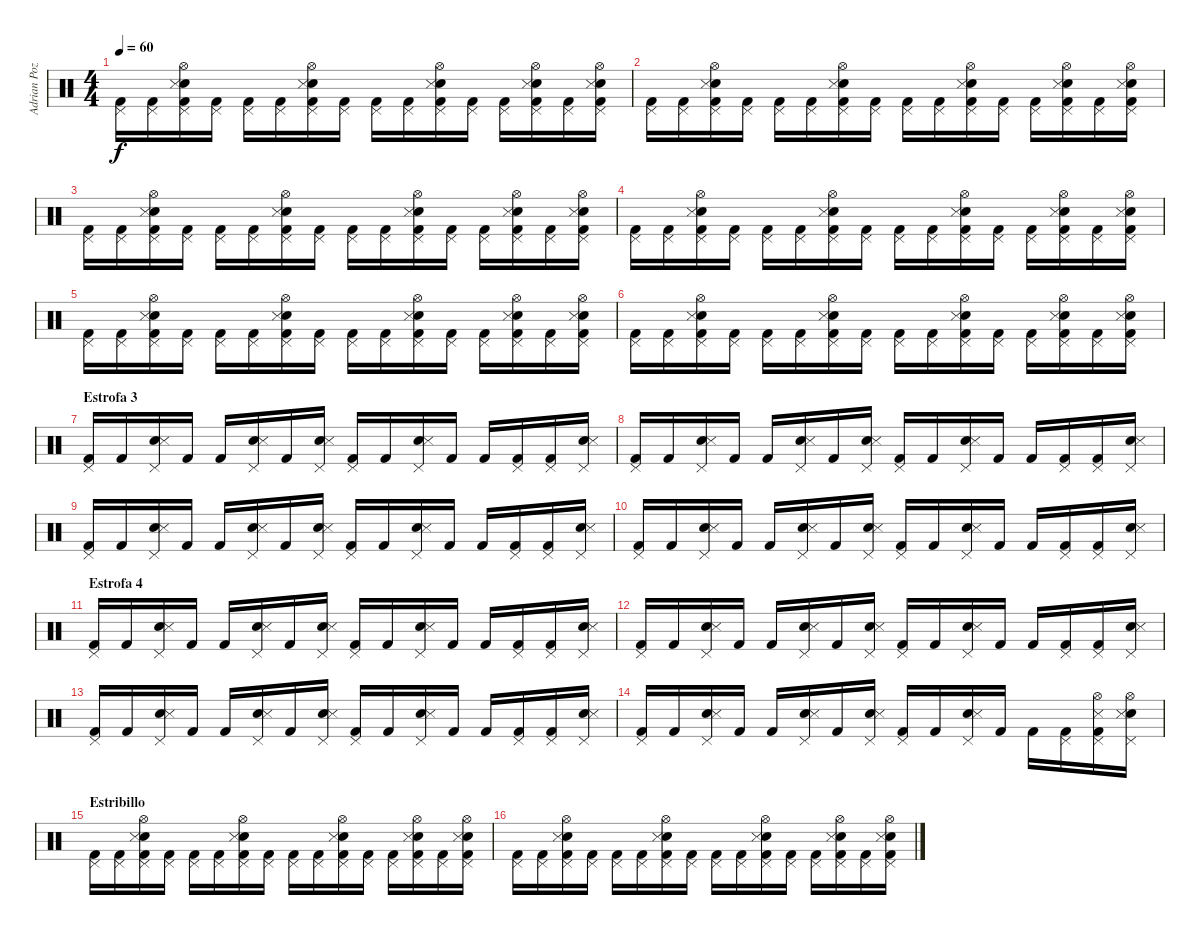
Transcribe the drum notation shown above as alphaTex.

\track ("Adrian Pozo" "Adrian Poz") {instrument percussion}
\staff {score}
\articulation defaults
\ts (4 4)
\tempo 60
\clef neutral
\ks c
("Kick (hit) 2" "Pedal Hi-Hat (hit)").16{dy f} ("Kick (hit) 2" "Pedal Hi-Hat (hit)").16 ("Snare (hit) 2" "Kick (hit) 2" "Snare (side stick) 3" "Hi-Hat (open)" "Pedal Hi-Hat (hit)").16 ("Kick (hit) 2" "Pedal Hi-Hat (hit)").16 ("Kick (hit) 2" "Pedal Hi-Hat (hit)").16 ("Kick (hit) 2" "Pedal Hi-Hat (hit)").16 ("Snare (hit) 2" "Kick (hit) 2" "Snare (side stick) 3" "Hi-Hat (open)" "Pedal Hi-Hat (hit)").16 ("Kick (hit) 2" "Pedal Hi-Hat (hit)").16 ("Kick (hit) 2" "Pedal Hi-Hat (hit)").16 ("Kick (hit) 2" "Pedal Hi-Hat (hit)").16 ("Snare (hit) 2" "Kick (hit) 2" "Snare (side stick) 3" "Hi-Hat (open)" "Pedal Hi-Hat (hit)").16 ("Kick (hit) 2" "Pedal Hi-Hat (hit)").16 ("Kick (hit) 2" "Pedal Hi-Hat (hit)").16 ("Snare (hit) 2" "Kick (hit) 2" "Snare (side stick) 3" "Hi-Hat (open)" "Pedal Hi-Hat (hit)").16 ("Kick (hit) 2" "Pedal Hi-Hat (hit)").16 ("Snare (hit) 2" "Kick (hit) 2" "Snare (side stick) 3" "Hi-Hat (open)" "Pedal Hi-Hat (hit)").16 |
("Kick (hit) 2" "Pedal Hi-Hat (hit)").16 ("Kick (hit) 2" "Pedal Hi-Hat (hit)").16 ("Snare (hit) 2" "Kick (hit) 2" "Snare (side stick) 3" "Hi-Hat (open)" "Pedal Hi-Hat (hit)").16 ("Kick (hit) 2" "Pedal Hi-Hat (hit)").16 ("Kick (hit) 2" "Pedal Hi-Hat (hit)").16 ("Kick (hit) 2" "Pedal Hi-Hat (hit)").16 ("Snare (hit) 2" "Kick (hit) 2" "Snare (side stick) 3" "Hi-Hat (open)" "Pedal Hi-Hat (hit)").16 ("Kick (hit) 2" "Pedal Hi-Hat (hit)").16 ("Kick (hit) 2" "Pedal Hi-Hat (hit)").16 ("Kick (hit) 2" "Pedal Hi-Hat (hit)").16 ("Snare (hit) 2" "Kick (hit) 2" "Snare (side stick) 3" "Hi-Hat (open)" "Pedal Hi-Hat (hit)").16 ("Kick (hit) 2" "Pedal Hi-Hat (hit)").16 ("Kick (hit) 2" "Pedal Hi-Hat (hit)").16 ("Snare (hit) 2" "Kick (hit) 2" "Snare (side stick) 3" "Hi-Hat (open)" "Pedal Hi-Hat (hit)").16 ("Kick (hit) 2" "Pedal Hi-Hat (hit)").16 ("Snare (hit) 2" "Kick (hit) 2" "Snare (side stick) 3" "Hi-Hat (open)" "Pedal Hi-Hat (hit)").16 |
("Kick (hit) 2" "Pedal Hi-Hat (hit)").16 ("Kick (hit) 2" "Pedal Hi-Hat (hit)").16 ("Snare (hit) 2" "Kick (hit) 2" "Snare (side stick) 3" "Hi-Hat (open)" "Pedal Hi-Hat (hit)").16 ("Kick (hit) 2" "Pedal Hi-Hat (hit)").16 ("Kick (hit) 2" "Pedal Hi-Hat (hit)").16 ("Kick (hit) 2" "Pedal Hi-Hat (hit)").16 ("Snare (hit) 2" "Kick (hit) 2" "Snare (side stick) 3" "Hi-Hat (open)" "Pedal Hi-Hat (hit)").16 ("Kick (hit) 2" "Pedal Hi-Hat (hit)").16 ("Kick (hit) 2" "Pedal Hi-Hat (hit)").16 ("Kick (hit) 2" "Pedal Hi-Hat (hit)").16 ("Snare (hit) 2" "Kick (hit) 2" "Snare (side stick) 3" "Hi-Hat (open)" "Pedal Hi-Hat (hit)").16 ("Kick (hit) 2" "Pedal Hi-Hat (hit)").16 ("Kick (hit) 2" "Pedal Hi-Hat (hit)").16 ("Snare (hit) 2" "Kick (hit) 2" "Snare (side stick) 3" "Hi-Hat (open)" "Pedal Hi-Hat (hit)").16 ("Kick (hit) 2" "Pedal Hi-Hat (hit)").16 ("Snare (hit) 2" "Kick (hit) 2" "Snare (side stick) 3" "Hi-Hat (open)" "Pedal Hi-Hat (hit)").16 |
("Kick (hit) 2" "Pedal Hi-Hat (hit)").16 ("Kick (hit) 2" "Pedal Hi-Hat (hit)").16 ("Snare (hit) 2" "Kick (hit) 2" "Snare (side stick) 3" "Hi-Hat (open)" "Pedal Hi-Hat (hit)").16 ("Kick (hit) 2" "Pedal Hi-Hat (hit)").16 ("Kick (hit) 2" "Pedal Hi-Hat (hit)").16 ("Kick (hit) 2" "Pedal Hi-Hat (hit)").16 ("Snare (hit) 2" "Kick (hit) 2" "Snare (side stick) 3" "Hi-Hat (open)" "Pedal Hi-Hat (hit)").16 ("Kick (hit) 2" "Pedal Hi-Hat (hit)").16 ("Kick (hit) 2" "Pedal Hi-Hat (hit)").16 ("Kick (hit) 2" "Pedal Hi-Hat (hit)").16 ("Snare (hit) 2" "Kick (hit) 2" "Snare (side stick) 3" "Hi-Hat (open)" "Pedal Hi-Hat (hit)").16 ("Kick (hit) 2" "Pedal Hi-Hat (hit)").16 ("Kick (hit) 2" "Pedal Hi-Hat (hit)").16 ("Snare (hit) 2" "Kick (hit) 2" "Snare (side stick) 3" "Hi-Hat (open)" "Pedal Hi-Hat (hit)").16 ("Kick (hit) 2" "Pedal Hi-Hat (hit)").16 ("Snare (hit) 2" "Kick (hit) 2" "Snare (side stick) 3" "Hi-Hat (open)" "Pedal Hi-Hat (hit)").16 |
("Kick (hit) 2" "Pedal Hi-Hat (hit)").16 ("Kick (hit) 2" "Pedal Hi-Hat (hit)").16 ("Snare (hit) 2" "Kick (hit) 2" "Snare (side stick) 3" "Hi-Hat (open)" "Pedal Hi-Hat (hit)").16 ("Kick (hit) 2" "Pedal Hi-Hat (hit)").16 ("Kick (hit) 2" "Pedal Hi-Hat (hit)").16 ("Kick (hit) 2" "Pedal Hi-Hat (hit)").16 ("Snare (hit) 2" "Kick (hit) 2" "Snare (side stick) 3" "Hi-Hat (open)" "Pedal Hi-Hat (hit)").16 ("Kick (hit) 2" "Pedal Hi-Hat (hit)").16 ("Kick (hit) 2" "Pedal Hi-Hat (hit)").16 ("Kick (hit) 2" "Pedal Hi-Hat (hit)").16 ("Snare (hit) 2" "Kick (hit) 2" "Snare (side stick) 3" "Hi-Hat (open)" "Pedal Hi-Hat (hit)").16 ("Kick (hit) 2" "Pedal Hi-Hat (hit)").16 ("Kick (hit) 2" "Pedal Hi-Hat (hit)").16 ("Snare (hit) 2" "Kick (hit) 2" "Snare (side stick) 3" "Hi-Hat (open)" "Pedal Hi-Hat (hit)").16 ("Kick (hit) 2" "Pedal Hi-Hat (hit)").16 ("Snare (hit) 2" "Kick (hit) 2" "Snare (side stick) 3" "Hi-Hat (open)" "Pedal Hi-Hat (hit)").16 |
("Kick (hit) 2" "Pedal Hi-Hat (hit)").16 ("Kick (hit) 2" "Pedal Hi-Hat (hit)").16 ("Snare (hit) 2" "Kick (hit) 2" "Snare (side stick) 3" "Hi-Hat (open)" "Pedal Hi-Hat (hit)").16 ("Kick (hit) 2" "Pedal Hi-Hat (hit)").16 ("Kick (hit) 2" "Pedal Hi-Hat (hit)").16 ("Kick (hit) 2" "Pedal Hi-Hat (hit)").16 ("Snare (hit) 2" "Kick (hit) 2" "Snare (side stick) 3" "Hi-Hat (open)" "Pedal Hi-Hat (hit)").16 ("Kick (hit) 2" "Pedal Hi-Hat (hit)").16 ("Kick (hit) 2" "Pedal Hi-Hat (hit)").16 ("Kick (hit) 2" "Pedal Hi-Hat (hit)").16 ("Snare (hit) 2" "Kick (hit) 2" "Snare (side stick) 3" "Hi-Hat (open)" "Pedal Hi-Hat (hit)").16 ("Kick (hit) 2" "Pedal Hi-Hat (hit)").16 ("Kick (hit) 2" "Pedal Hi-Hat (hit)").16 ("Snare (hit) 2" "Kick (hit) 2" "Snare (side stick) 3" "Hi-Hat (open)" "Pedal Hi-Hat (hit)").16 ("Kick (hit) 2" "Pedal Hi-Hat (hit)").16 ("Snare (hit) 2" "Kick (hit) 2" "Snare (side stick) 3" "Hi-Hat (open)" "Pedal Hi-Hat (hit)").16 |
\section ("" "Estrofa 3")
("Kick (hit) 2" "Pedal Hi-Hat (hit)").16 "Kick (hit) 2".16 ("Snare (hit) 2" "Snare (side stick) 3" "Pedal Hi-Hat (hit)").16 "Kick (hit) 2".16 "Kick (hit) 2".16 ("Snare (hit) 2" "Snare (side stick) 3" "Pedal Hi-Hat (hit)").16 "Kick (hit) 2".16 ("Snare (hit) 2" "Snare (side stick) 3" "Pedal Hi-Hat (hit)").16 ("Kick (hit) 2" "Pedal Hi-Hat (hit)").16 "Kick (hit) 2".16 ("Snare (hit) 2" "Snare (side stick) 3" "Pedal Hi-Hat (hit)").16 "Kick (hit) 2".16 "Kick (hit) 2".16 ("Kick (hit) 2" "Pedal Hi-Hat (hit)").16 ("Kick (hit) 2" "Pedal Hi-Hat (hit)").16 ("Snare (hit) 2" "Snare (side stick) 3" "Pedal Hi-Hat (hit)").16 |
("Kick (hit) 2" "Pedal Hi-Hat (hit)").16 "Kick (hit) 2".16 ("Snare (hit) 2" "Snare (side stick) 3" "Pedal Hi-Hat (hit)").16 "Kick (hit) 2".16 "Kick (hit) 2".16 ("Snare (hit) 2" "Snare (side stick) 3" "Pedal Hi-Hat (hit)").16 "Kick (hit) 2".16 ("Snare (hit) 2" "Snare (side stick) 3" "Pedal Hi-Hat (hit)").16 ("Kick (hit) 2" "Pedal Hi-Hat (hit)").16 "Kick (hit) 2".16 ("Snare (hit) 2" "Snare (side stick) 3" "Pedal Hi-Hat (hit)").16 "Kick (hit) 2".16 "Kick (hit) 2".16 ("Kick (hit) 2" "Pedal Hi-Hat (hit)").16 ("Kick (hit) 2" "Pedal Hi-Hat (hit)").16 ("Snare (hit) 2" "Snare (side stick) 3" "Pedal Hi-Hat (hit)").16 |
("Kick (hit) 2" "Pedal Hi-Hat (hit)").16 "Kick (hit) 2".16 ("Snare (hit) 2" "Snare (side stick) 3" "Pedal Hi-Hat (hit)").16 "Kick (hit) 2".16 "Kick (hit) 2".16 ("Snare (hit) 2" "Snare (side stick) 3" "Pedal Hi-Hat (hit)").16 "Kick (hit) 2".16 ("Snare (hit) 2" "Snare (side stick) 3" "Pedal Hi-Hat (hit)").16 ("Kick (hit) 2" "Pedal Hi-Hat (hit)").16 "Kick (hit) 2".16 ("Snare (hit) 2" "Snare (side stick) 3" "Pedal Hi-Hat (hit)").16 "Kick (hit) 2".16 "Kick (hit) 2".16 ("Kick (hit) 2" "Pedal Hi-Hat (hit)").16 ("Kick (hit) 2" "Pedal Hi-Hat (hit)").16 ("Snare (hit) 2" "Snare (side stick) 3" "Pedal Hi-Hat (hit)").16 |
("Kick (hit) 2" "Pedal Hi-Hat (hit)").16 "Kick (hit) 2".16 ("Snare (hit) 2" "Snare (side stick) 3" "Pedal Hi-Hat (hit)").16 "Kick (hit) 2".16 "Kick (hit) 2".16 ("Snare (hit) 2" "Snare (side stick) 3" "Pedal Hi-Hat (hit)").16 "Kick (hit) 2".16 ("Snare (hit) 2" "Snare (side stick) 3" "Pedal Hi-Hat (hit)").16 ("Kick (hit) 2" "Pedal Hi-Hat (hit)").16 "Kick (hit) 2".16 ("Snare (hit) 2" "Snare (side stick) 3" "Pedal Hi-Hat (hit)").16 "Kick (hit) 2".16 "Kick (hit) 2".16 ("Kick (hit) 2" "Pedal Hi-Hat (hit)").16 ("Kick (hit) 2" "Pedal Hi-Hat (hit)").16 ("Snare (hit) 2" "Snare (side stick) 3" "Pedal Hi-Hat (hit)").16 |
\section ("" "Estrofa 4")
("Kick (hit) 2" "Pedal Hi-Hat (hit)").16 "Kick (hit) 2".16 ("Snare (hit) 2" "Snare (side stick) 3" "Pedal Hi-Hat (hit)").16 "Kick (hit) 2".16 "Kick (hit) 2".16 ("Snare (hit) 2" "Snare (side stick) 3" "Pedal Hi-Hat (hit)").16 "Kick (hit) 2".16 ("Snare (hit) 2" "Snare (side stick) 3" "Pedal Hi-Hat (hit)").16 ("Kick (hit) 2" "Pedal Hi-Hat (hit)").16 "Kick (hit) 2".16 ("Snare (hit) 2" "Snare (side stick) 3" "Pedal Hi-Hat (hit)").16 "Kick (hit) 2".16 "Kick (hit) 2".16 ("Kick (hit) 2" "Pedal Hi-Hat (hit)").16 ("Kick (hit) 2" "Pedal Hi-Hat (hit)").16 ("Snare (hit) 2" "Snare (side stick) 3" "Pedal Hi-Hat (hit)").16 |
("Kick (hit) 2" "Pedal Hi-Hat (hit)").16 "Kick (hit) 2".16 ("Snare (hit) 2" "Snare (side stick) 3" "Pedal Hi-Hat (hit)").16 "Kick (hit) 2".16 "Kick (hit) 2".16 ("Snare (hit) 2" "Snare (side stick) 3" "Pedal Hi-Hat (hit)").16 "Kick (hit) 2".16 ("Snare (hit) 2" "Snare (side stick) 3" "Pedal Hi-Hat (hit)").16 ("Kick (hit) 2" "Pedal Hi-Hat (hit)").16 "Kick (hit) 2".16 ("Snare (hit) 2" "Snare (side stick) 3" "Pedal Hi-Hat (hit)").16 "Kick (hit) 2".16 "Kick (hit) 2".16 ("Kick (hit) 2" "Pedal Hi-Hat (hit)").16 ("Kick (hit) 2" "Pedal Hi-Hat (hit)").16 ("Snare (hit) 2" "Snare (side stick) 3" "Pedal Hi-Hat (hit)").16 |
("Kick (hit) 2" "Pedal Hi-Hat (hit)").16 "Kick (hit) 2".16 ("Snare (hit) 2" "Snare (side stick) 3" "Pedal Hi-Hat (hit)").16 "Kick (hit) 2".16 "Kick (hit) 2".16 ("Snare (hit) 2" "Snare (side stick) 3" "Pedal Hi-Hat (hit)").16 "Kick (hit) 2".16 ("Snare (hit) 2" "Snare (side stick) 3" "Pedal Hi-Hat (hit)").16 ("Kick (hit) 2" "Pedal Hi-Hat (hit)").16 "Kick (hit) 2".16 ("Snare (hit) 2" "Snare (side stick) 3" "Pedal Hi-Hat (hit)").16 "Kick (hit) 2".16 "Kick (hit) 2".16 ("Kick (hit) 2" "Pedal Hi-Hat (hit)").16 ("Kick (hit) 2" "Pedal Hi-Hat (hit)").16 ("Snare (hit) 2" "Snare (side stick) 3" "Pedal Hi-Hat (hit)").16 |
("Kick (hit) 2" "Pedal Hi-Hat (hit)").16 "Kick (hit) 2".16 ("Snare (hit) 2" "Snare (side stick) 3" "Pedal Hi-Hat (hit)").16 "Kick (hit) 2".16 "Kick (hit) 2".16 ("Snare (hit) 2" "Snare (side stick) 3" "Pedal Hi-Hat (hit)").16 "Kick (hit) 2".16 ("Snare (hit) 2" "Snare (side stick) 3" "Pedal Hi-Hat (hit)").16 ("Kick (hit) 2" "Pedal Hi-Hat (hit)").16 "Kick (hit) 2".16 ("Snare (hit) 2" "Snare (side stick) 3" "Pedal Hi-Hat (hit)").16 "Kick (hit) 2".16 "Kick (hit) 2".16 ("Kick (hit) 2" "Pedal Hi-Hat (hit)").16 ("Kick (hit) 2" "Snare (side stick) 3" "Hi-Hat (open)" "Pedal Hi-Hat (hit)").16 ("Snare (hit) 2" "Snare (side stick) 3" "Hi-Hat (open)" "Pedal Hi-Hat (hit)").16 |
\section ("" "Estribillo")
("Kick (hit) 2" "Pedal Hi-Hat (hit)").16 ("Kick (hit) 2" "Pedal Hi-Hat (hit)").16 ("Snare (hit) 2" "Kick (hit) 2" "Snare (side stick) 3" "Hi-Hat (open)" "Pedal Hi-Hat (hit)").16 ("Kick (hit) 2" "Pedal Hi-Hat (hit)").16 ("Kick (hit) 2" "Pedal Hi-Hat (hit)").16 ("Kick (hit) 2" "Pedal Hi-Hat (hit)").16 ("Snare (hit) 2" "Kick (hit) 2" "Snare (side stick) 3" "Hi-Hat (open)" "Pedal Hi-Hat (hit)").16 ("Kick (hit) 2" "Pedal Hi-Hat (hit)").16 ("Kick (hit) 2" "Pedal Hi-Hat (hit)").16 ("Kick (hit) 2" "Pedal Hi-Hat (hit)").16 ("Snare (hit) 2" "Kick (hit) 2" "Snare (side stick) 3" "Hi-Hat (open)" "Pedal Hi-Hat (hit)").16 ("Kick (hit) 2" "Pedal Hi-Hat (hit)").16 ("Kick (hit) 2" "Pedal Hi-Hat (hit)").16 ("Snare (hit) 2" "Kick (hit) 2" "Snare (side stick) 3" "Hi-Hat (open)" "Pedal Hi-Hat (hit)").16 ("Kick (hit) 2" "Pedal Hi-Hat (hit)").16 ("Snare (hit) 2" "Kick (hit) 2" "Snare (side stick) 3" "Hi-Hat (open)" "Pedal Hi-Hat (hit)").16 |
("Kick (hit) 2" "Pedal Hi-Hat (hit)").16 ("Kick (hit) 2" "Pedal Hi-Hat (hit)").16 ("Snare (hit) 2" "Kick (hit) 2" "Snare (side stick) 3" "Hi-Hat (open)" "Pedal Hi-Hat (hit)").16 ("Kick (hit) 2" "Pedal Hi-Hat (hit)").16 ("Kick (hit) 2" "Pedal Hi-Hat (hit)").16 ("Kick (hit) 2" "Pedal Hi-Hat (hit)").16 ("Snare (hit) 2" "Kick (hit) 2" "Snare (side stick) 3" "Hi-Hat (open)" "Pedal Hi-Hat (hit)").16 ("Kick (hit) 2" "Pedal Hi-Hat (hit)").16 ("Kick (hit) 2" "Pedal Hi-Hat (hit)").16 ("Kick (hit) 2" "Pedal Hi-Hat (hit)").16 ("Snare (hit) 2" "Kick (hit) 2" "Snare (side stick) 3" "Hi-Hat (open)" "Pedal Hi-Hat (hit)").16 ("Kick (hit) 2" "Pedal Hi-Hat (hit)").16 ("Kick (hit) 2" "Pedal Hi-Hat (hit)").16 ("Snare (hit) 2" "Kick (hit) 2" "Snare (side stick) 3" "Hi-Hat (open)" "Pedal Hi-Hat (hit)").16 ("Kick (hit) 2" "Pedal Hi-Hat (hit)").16 ("Snare (hit) 2" "Kick (hit) 2" "Snare (side stick) 3" "Hi-Hat (open)" "Pedal Hi-Hat (hit)").16
